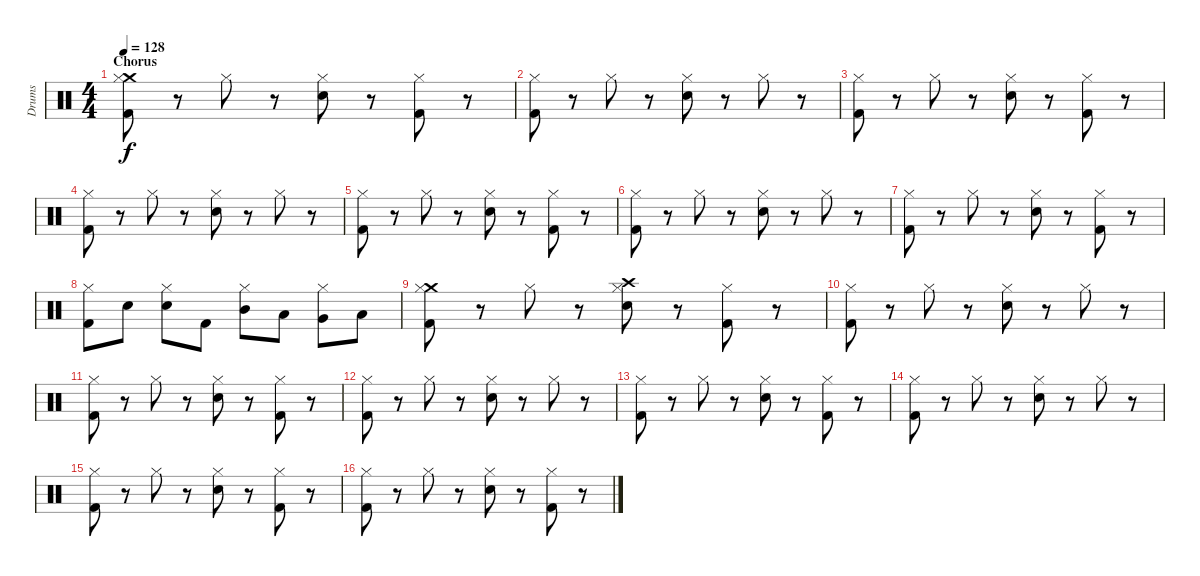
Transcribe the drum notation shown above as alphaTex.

\track ("Drums" "Drums") {instrument percussion}
\staff {score}
\articulation defaults
\ts (4 4)
\section ("" "Chorus")
\tempo 128
\clef neutral
\ks c
("Crash medium (hit)" "Hi-Hat (closed)" "Kick (hit) 2").8{dy f} r.8 "Hi-Hat (closed)".8 r.8 ("Snare (hit) 2" "Hi-Hat (closed)").8 r.8 ("Hi-Hat (closed)" "Kick (hit) 2").8 r.8 |
("Hi-Hat (closed)" "Kick (hit) 2").8 r.8 "Hi-Hat (closed)".8 r.8 ("Snare (hit) 2" "Hi-Hat (closed)").8 r.8 "Hi-Hat (closed)".8 r.8 |
("Hi-Hat (closed)" "Kick (hit) 2").8 r.8 "Hi-Hat (closed)".8 r.8 ("Snare (hit) 2" "Hi-Hat (closed)").8 r.8 ("Hi-Hat (closed)" "Kick (hit) 2").8 r.8 |
("Hi-Hat (closed)" "Kick (hit) 2").8 r.8 "Hi-Hat (closed)".8 r.8 ("Snare (hit) 2" "Hi-Hat (closed)").8 r.8 "Hi-Hat (closed)".8 r.8 |
("Hi-Hat (closed)" "Kick (hit) 2").8 r.8 "Hi-Hat (closed)".8 r.8 ("Snare (hit) 2" "Hi-Hat (closed)").8 r.8 ("Hi-Hat (closed)" "Kick (hit) 2").8 r.8 |
("Hi-Hat (closed)" "Kick (hit) 2").8 r.8 "Hi-Hat (closed)".8 r.8 ("Snare (hit) 2" "Hi-Hat (closed)").8 r.8 "Hi-Hat (closed)".8 r.8 |
("Hi-Hat (closed)" "Kick (hit) 2").8 r.8 "Hi-Hat (closed)".8 r.8 ("Snare (hit) 2" "Hi-Hat (closed)").8 r.8 ("Hi-Hat (closed)" "Kick (hit) 2").8 r.8 |
("Hi-Hat (closed)" "Kick (hit) 2").8 "Snare (hit) 2".8 ("Snare (hit) 2" "Hi-Hat (closed)").8 "Kick (hit) 2".8 ("Mid Tom (hit)" "Hi-Hat (closed)").8 "Low Tom (hit)".8 ("Very Low Tom (hit)" "Hi-Hat (closed)").8 "Low Floor Tom (hit)".8 |
("Crash medium (hit)" "Hi-Hat (closed)" "Kick (hit) 2").8 r.8 "Hi-Hat (closed)".8 r.8 ("Crash high (hit)" "Hi-Hat (closed)" "Snare (hit) 2").8 r.8 ("Hi-Hat (closed)" "Kick (hit) 2").8 r.8 |
("Hi-Hat (closed)" "Kick (hit) 2").8 r.8 "Hi-Hat (closed)".8 r.8 ("Snare (hit) 2" "Hi-Hat (closed)").8 r.8 "Hi-Hat (closed)".8 r.8 |
("Hi-Hat (closed)" "Kick (hit) 2").8 r.8 "Hi-Hat (closed)".8 r.8 ("Snare (hit) 2" "Hi-Hat (closed)").8 r.8 ("Hi-Hat (closed)" "Kick (hit) 2").8 r.8 |
("Hi-Hat (closed)" "Kick (hit) 2").8 r.8 "Hi-Hat (closed)".8 r.8 ("Snare (hit) 2" "Hi-Hat (closed)").8 r.8 "Hi-Hat (closed)".8 r.8 |
("Hi-Hat (closed)" "Kick (hit) 2").8 r.8 "Hi-Hat (closed)".8 r.8 ("Snare (hit) 2" "Hi-Hat (closed)").8 r.8 ("Hi-Hat (closed)" "Kick (hit) 2").8 r.8 |
("Hi-Hat (closed)" "Kick (hit) 2").8 r.8 "Hi-Hat (closed)".8 r.8 ("Snare (hit) 2" "Hi-Hat (closed)").8 r.8 "Hi-Hat (closed)".8 r.8 |
("Hi-Hat (closed)" "Kick (hit) 2").8 r.8 "Hi-Hat (closed)".8 r.8 ("Snare (hit) 2" "Hi-Hat (closed)").8 r.8 ("Hi-Hat (closed)" "Kick (hit) 2").8 r.8 |
("Hi-Hat (closed)" "Kick (hit) 2").8 r.8 "Hi-Hat (closed)".8 r.8 ("Snare (hit) 2" "Hi-Hat (closed)").8 r.8 ("Hi-Hat (closed)" "Kick (hit) 2").8 r.8
